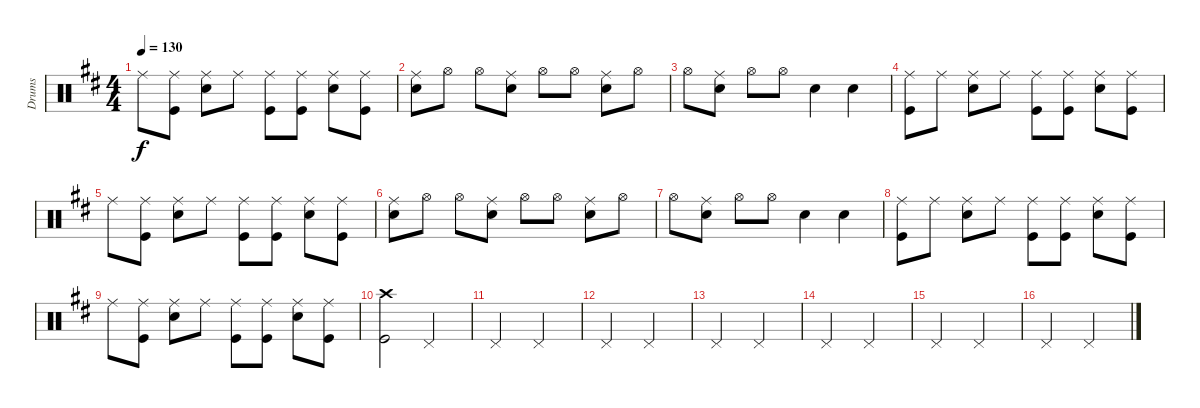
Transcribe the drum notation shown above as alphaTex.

\track ("Drums" "Drums") {instrument percussion}
\staff {score}
\articulation defaults
\ts (4 4)
\tempo 130
\clef neutral
\ks d "Ride (middle)".8{dy f}
("Ride (middle)" "Kick (hit)").8 ("Ride (middle)" "Snare (hit) 2").8 "Ride (middle)".8 ("Ride (middle)" "Kick (hit)").8 ("Ride (middle)" "Kick (hit)").8 ("Ride (middle)" "Snare (hit) 2").8 ("Ride (middle)" "Kick (hit)").8 |
("Ride (middle)" "Snare (hit) 2").8 "Hi-Hat (open)".8 "Hi-Hat (open)".8 ("Ride (middle)" "Snare (hit) 2").8 "Hi-Hat (open)".8 "Hi-Hat (open)".8 ("Ride (middle)" "Snare (hit) 2").8 "Hi-Hat (open)".8 |
"Hi-Hat (open)".8 ("Ride (middle)" "Snare (hit) 2").8 "Hi-Hat (open)".8 "Hi-Hat (open)".8 "Snare (hit) 2".4 "Snare (hit) 2".4 |
("Ride (middle)" "Kick (hit)").8 "Ride (middle)".8 ("Ride (middle)" "Snare (hit) 2").8 "Ride (middle)".8 ("Ride (middle)" "Kick (hit)").8 ("Ride (middle)" "Kick (hit)").8 ("Ride (middle)" "Snare (hit) 2").8 ("Ride (middle)" "Kick (hit)").8 |
"Ride (middle)".8 ("Ride (middle)" "Kick (hit)").8 ("Ride (middle)" "Snare (hit) 2").8 "Ride (middle)".8 ("Ride (middle)" "Kick (hit)").8 ("Ride (middle)" "Kick (hit)").8 ("Ride (middle)" "Snare (hit) 2").8 ("Ride (middle)" "Kick (hit)").8 |
("Ride (middle)" "Snare (hit) 2").8 "Hi-Hat (open)".8 "Hi-Hat (open)".8 ("Ride (middle)" "Snare (hit) 2").8 "Hi-Hat (open)".8 "Hi-Hat (open)".8 ("Ride (middle)" "Snare (hit) 2").8 "Hi-Hat (open)".8 |
"Hi-Hat (open)".8 ("Ride (middle)" "Snare (hit) 2").8 "Hi-Hat (open)".8 "Hi-Hat (open)".8 "Snare (hit) 2".4 "Snare (hit) 2".4 |
("Ride (middle)" "Kick (hit)").8 "Ride (middle)".8 ("Ride (middle)" "Snare (hit) 2").8 "Ride (middle)".8 ("Ride (middle)" "Kick (hit)").8 ("Ride (middle)" "Kick (hit)").8 ("Ride (middle)" "Snare (hit) 2").8 ("Ride (middle)" "Kick (hit)").8 |
"Ride (middle)".8 ("Ride (middle)" "Kick (hit)").8 ("Ride (middle)" "Snare (hit) 2").8 "Ride (middle)".8 ("Ride (middle)" "Kick (hit)").8 ("Ride (middle)" "Kick (hit)").8 ("Ride (middle)" "Snare (hit) 2").8 ("Ride (middle)" "Kick (hit)").8 |
("Crash high (hit)" "Kick (hit)").2 "Pedal Hi-Hat (hit)".2 |
"Pedal Hi-Hat (hit)".2 "Pedal Hi-Hat (hit)".2 |
"Pedal Hi-Hat (hit)".2 "Pedal Hi-Hat (hit)".2 |
"Pedal Hi-Hat (hit)".2 "Pedal Hi-Hat (hit)".2 |
"Pedal Hi-Hat (hit)".2 "Pedal Hi-Hat (hit)".2 |
"Pedal Hi-Hat (hit)".2 "Pedal Hi-Hat (hit)".2 |
"Pedal Hi-Hat (hit)".2 "Pedal Hi-Hat (hit)".2
